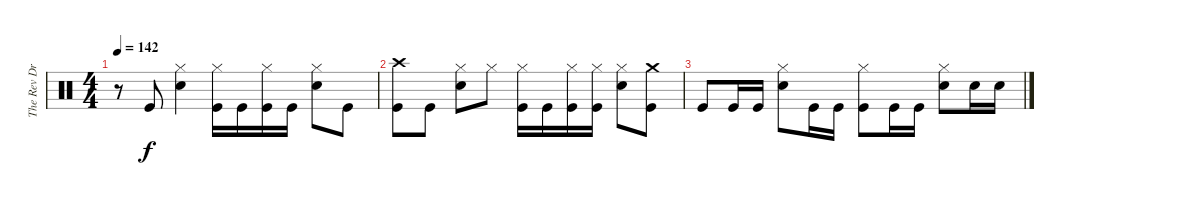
\track ("The Rev Drums" "The Rev Dr") {instrument percussion}
\staff {score}
\articulation defaults
\ts (4 4)
\tempo 142
\clef neutral
\ks c
r.8{dy f} "Kick (hit)".8 ("Hi-Hat (closed)" "Electric Snare (hit)").4 ("Hi-Hat (closed)" "Kick (hit)").16 "Kick (hit)".16 ("Hi-Hat (closed)" "Kick (hit)").16 "Kick (hit)".16 ("Hi-Hat (closed)" "Electric Snare (hit)").8 "Kick (hit)".8 |
("Crash high (hit)" "Kick (hit)").8 "Kick (hit)".8 ("Hi-Hat (closed)" "Electric Snare (hit)").8 "Hi-Hat (closed)".8 ("Hi-Hat (closed)" "Kick (hit)").16 "Kick (hit)".16 ("Hi-Hat (closed)" "Kick (hit)").16 ("Hi-Hat (closed)" "Kick (hit)").16 ("Hi-Hat (closed)" "Electric Snare (hit)").8 ("Crash medium (hit)" "Kick (hit)").8 |
"Kick (hit)".8 "Kick (hit)".16 "Kick (hit)".16 ("Hi-Hat (closed)" "Electric Snare (hit)").8 "Kick (hit)".16 "Kick (hit)".16 ("Hi-Hat (closed)" "Kick (hit)").8 "Kick (hit)".16 "Kick (hit)".16 ("Hi-Hat (closed)" "Electric Snare (hit)").8 "Electric Snare (hit)".16 "Electric Snare (hit)".16
